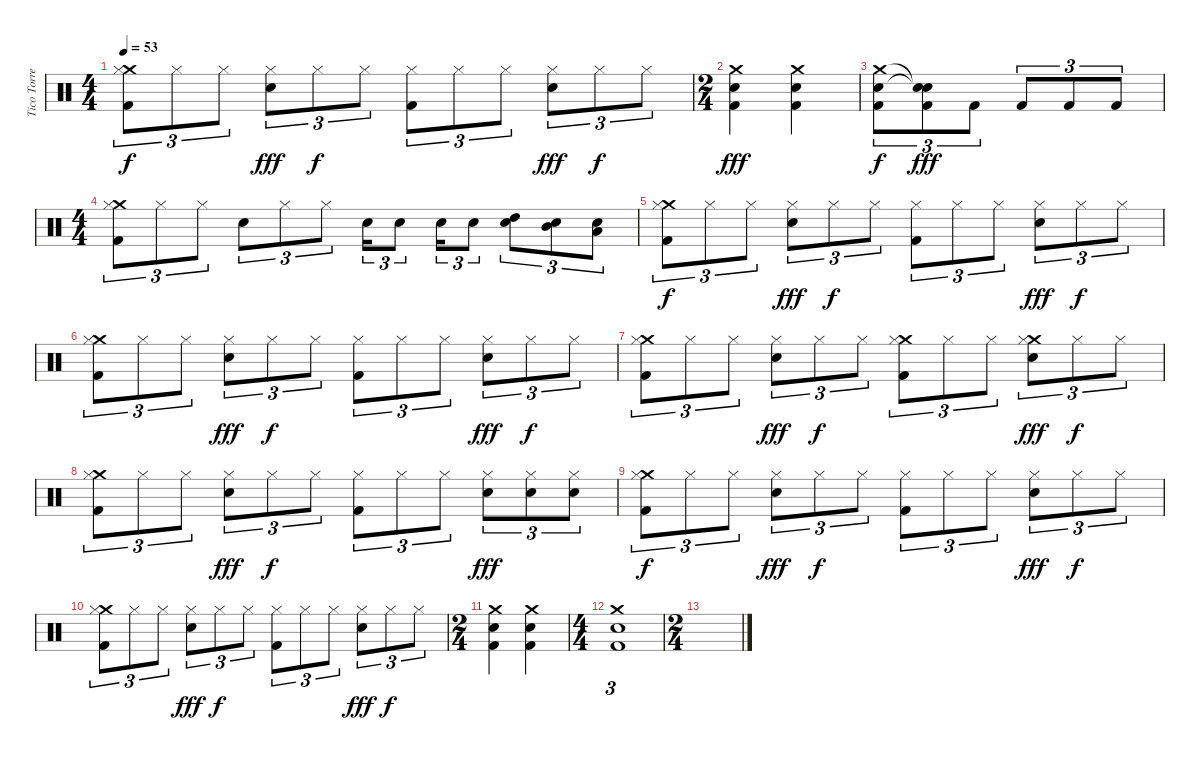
\track ("Tico Torres (Drums)" "Tico Torre") {instrument percussion}
\staff {score}
\articulation defaults
\ts (4 4)
\tempo 53
\clef neutral
\ks c
("Crash medium (hit)" "Hi-Hat (closed)" "Kick (hit) 2").8{tu (3 2) dy f} "Hi-Hat (closed)".8{tu (3 2)} "Hi-Hat (closed)".8{tu (3 2)} ("Snare (hit) 2" "Hi-Hat (closed)").8{tu (3 2) dy fff} "Hi-Hat (closed)".8{tu (3 2) dy f} "Hi-Hat (closed)".8{tu (3 2)} ("Hi-Hat (closed)" "Kick (hit) 2").8{tu (3 2)} "Hi-Hat (closed)".8{tu (3 2)} "Hi-Hat (closed)".8{tu (3 2)} ("Snare (hit) 2" "Hi-Hat (closed)").8{tu (3 2) dy fff} "Hi-Hat (closed)".8{tu (3 2) dy f} "Hi-Hat (closed)".8{tu (3 2)} |
\ts (2 4)
("Crash medium (hit)" "Kick (hit) 2" "Snare (hit) 2").4{dy fff} ("Crash medium (hit)" "Kick (hit) 2" "Snare (hit) 2").4 |
("Crash medium (hit)" "Kick (hit) 2" "Snare (hit) 2").8{tu (3 2) dy f volume 16} ("Snare (hit)"{t} "Kick (hit) 2" "Snare (hit)"{t}).8{tu (3 2) dy fff} "Kick (hit) 2".8{tu (3 2)} "Kick (hit) 2".8{tu (3 2)} "Kick (hit) 2".8{tu (3 2)} "Kick (hit) 2".8{tu (3 2)} |
\ts (4 4)
("Crash medium (hit)" "Kick (hit) 2" "Hi-Hat (closed)").8{tu (3 2)} "Hi-Hat (closed)".8{tu (3 2)} "Hi-Hat (closed)".8{tu (3 2)} "Snare (hit) 2".8{tu (3 2)} "Hi-Hat (closed)".8{tu (3 2)} "Hi-Hat (closed)".8{tu (3 2)} "Snare (hit) 2".16{tu (3 2)} "Snare (hit) 2".8{tu (3 2)} "Snare (hit) 2".16{tu (3 2)} "Snare (hit) 2".8{tu (3 2)} ("High Tom (hit)" "Snare (hit) 2").8{tu (3 2)} ("Mid Tom (hit)" "Snare (hit) 2").8{tu (3 2)} ("Low Tom (hit)" "Snare (hit) 2").8{tu (3 2)} |
("Crash medium (hit)" "Hi-Hat (closed)" "Kick (hit) 2").8{tu (3 2) dy f} "Hi-Hat (closed)".8{tu (3 2)} "Hi-Hat (closed)".8{tu (3 2)} ("Snare (hit) 2" "Hi-Hat (closed)").8{tu (3 2) dy fff} "Hi-Hat (closed)".8{tu (3 2) dy f} "Hi-Hat (closed)".8{tu (3 2)} ("Hi-Hat (closed)" "Kick (hit) 2").8{tu (3 2)} "Hi-Hat (closed)".8{tu (3 2)} "Hi-Hat (closed)".8{tu (3 2)} ("Snare (hit) 2" "Hi-Hat (closed)").8{tu (3 2) dy fff} "Hi-Hat (closed)".8{tu (3 2) dy f} "Hi-Hat (closed)".8{tu (3 2)} |
("Crash medium (hit)" "Hi-Hat (closed)" "Kick (hit) 2").8{tu (3 2)} "Hi-Hat (closed)".8{tu (3 2)} "Hi-Hat (closed)".8{tu (3 2)} ("Snare (hit) 2" "Hi-Hat (closed)").8{tu (3 2) dy fff} "Hi-Hat (closed)".8{tu (3 2) dy f} "Hi-Hat (closed)".8{tu (3 2)} ("Hi-Hat (closed)" "Kick (hit) 2").8{tu (3 2)} "Hi-Hat (closed)".8{tu (3 2)} "Hi-Hat (closed)".8{tu (3 2)} ("Snare (hit) 2" "Hi-Hat (closed)").8{tu (3 2) dy fff} "Hi-Hat (closed)".8{tu (3 2) dy f} "Hi-Hat (closed)".8{tu (3 2)} |
("Crash medium (hit)" "Hi-Hat (closed)" "Kick (hit) 2").8{tu (3 2)} "Hi-Hat (closed)".8{tu (3 2)} "Hi-Hat (closed)".8{tu (3 2)} ("Snare (hit) 2" "Hi-Hat (closed)").8{tu (3 2) dy fff} "Hi-Hat (closed)".8{tu (3 2) dy f} "Hi-Hat (closed)".8{tu (3 2)} ("Crash medium (hit)" "Hi-Hat (closed)" "Kick (hit) 2").8{tu (3 2)} "Hi-Hat (closed)".8{tu (3 2)} "Hi-Hat (closed)".8{tu (3 2)} ("Crash medium (hit)" "Snare (hit) 2" "Hi-Hat (closed)").8{tu (3 2) dy fff} "Hi-Hat (closed)".8{tu (3 2) dy f} "Hi-Hat (closed)".8{tu (3 2)} |
("Crash medium (hit)" "Hi-Hat (closed)" "Kick (hit) 2").8{tu (3 2)} "Hi-Hat (closed)".8{tu (3 2)} "Hi-Hat (closed)".8{tu (3 2)} ("Snare (hit) 2" "Hi-Hat (closed)").8{tu (3 2) dy fff} "Hi-Hat (closed)".8{tu (3 2) dy f} "Hi-Hat (closed)".8{tu (3 2)} ("Hi-Hat (closed)" "Kick (hit) 2").8{tu (3 2)} "Hi-Hat (closed)".8{tu (3 2)} "Hi-Hat (closed)".8{tu (3 2)} ("Snare (hit) 2" "Hi-Hat (closed)").8{tu (3 2) dy fff} ("Snare (hit) 2" "Hi-Hat (closed)").8{tu (3 2)} ("Snare (hit) 2" "Hi-Hat (closed)").8{tu (3 2)} |
("Crash medium (hit)" "Hi-Hat (closed)" "Kick (hit) 2").8{tu (3 2) dy f} "Hi-Hat (closed)".8{tu (3 2)} "Hi-Hat (closed)".8{tu (3 2)} ("Snare (hit) 2" "Hi-Hat (closed)").8{tu (3 2) dy fff} "Hi-Hat (closed)".8{tu (3 2) dy f} "Hi-Hat (closed)".8{tu (3 2)} ("Hi-Hat (closed)" "Kick (hit) 2").8{tu (3 2)} "Hi-Hat (closed)".8{tu (3 2)} "Hi-Hat (closed)".8{tu (3 2)} ("Snare (hit) 2" "Hi-Hat (closed)").8{tu (3 2) dy fff} "Hi-Hat (closed)".8{tu (3 2) dy f} "Hi-Hat (closed)".8{tu (3 2)} |
("Crash medium (hit)" "Hi-Hat (closed)" "Kick (hit) 2").8{tu (3 2)} "Hi-Hat (closed)".8{tu (3 2)} "Hi-Hat (closed)".8{tu (3 2)} ("Snare (hit) 2" "Hi-Hat (closed)").8{tu (3 2) dy fff} "Hi-Hat (closed)".8{tu (3 2) dy f} "Hi-Hat (closed)".8{tu (3 2)} ("Hi-Hat (closed)" "Kick (hit) 2").8{tu (3 2)} "Hi-Hat (closed)".8{tu (3 2)} "Hi-Hat (closed)".8{tu (3 2)} ("Snare (hit) 2" "Hi-Hat (closed)").8{tu (3 2) dy fff} "Hi-Hat (closed)".8{tu (3 2) dy f} "Hi-Hat (closed)".8{tu (3 2)} |
\ts (2 4)
("Crash medium (hit)" "Kick (hit) 2" "Snare (hit) 2").4 ("Crash medium (hit)" "Kick (hit) 2" "Snare (hit) 2").4 |
\ts (4 4)
("Crash medium (hit)" "Kick (hit) 2" "Snare (hit) 2").1{tu (3 2)} |
\ts (2 4)
